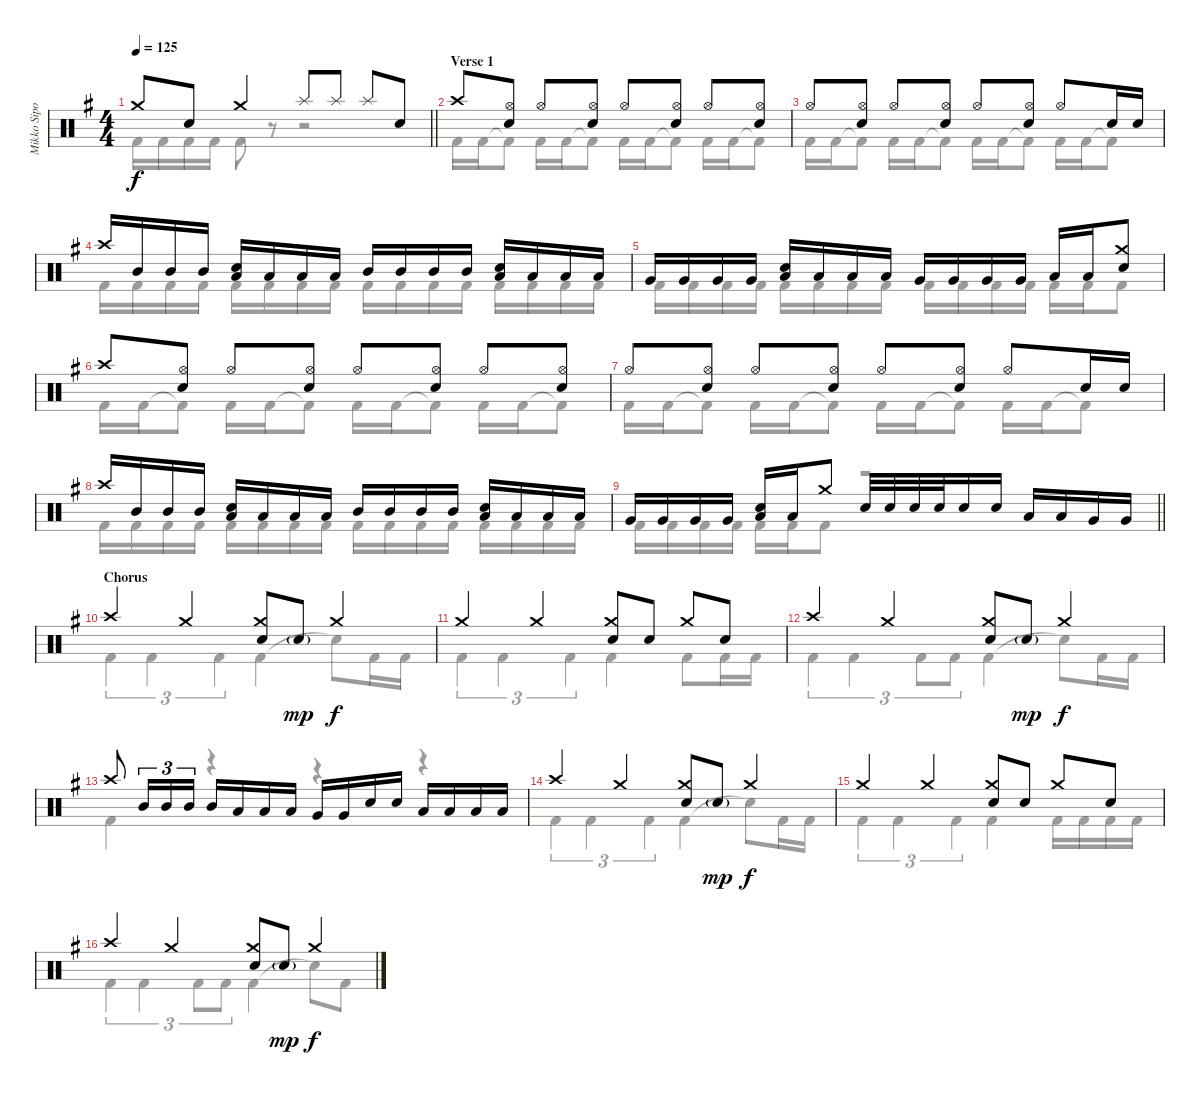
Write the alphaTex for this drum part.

\track ("Mikko Sipola (drums)" "Mikko Sipo") {instrument percussion}
\staff {score}
\articulation defaults
\voice
\ts (4 4)
\tempo 125
\clef neutral
\barLineRight lightlight
\ks g "Crash medium (hit)".8{dy f} "Electric Snare (hit)".8 "Crash medium (hit)".4 "Splash (hit)".8 "Splash (hit)".8 "Splash (hit)".8 "Electric Snare (hit)".8
|
\section ("" "Verse 1")
"Crash high (hit)".8 ("Hi-Hat (open)" "Electric Snare (hit)").8 "Hi-Hat (open)".8 ("Hi-Hat (open)" "Electric Snare (hit)").8 "Hi-Hat (open)".8 ("Hi-Hat (open)" "Electric Snare (hit)").8 "Hi-Hat (open)".8 ("Hi-Hat (open)" "Electric Snare (hit)").8 |
"Hi-Hat (open)".8 ("Hi-Hat (open)" "Electric Snare (hit)").8 "Hi-Hat (open)".8 ("Hi-Hat (open)" "Electric Snare (hit)").8 "Hi-Hat (open)".8 ("Hi-Hat (open)" "Electric Snare (hit)").8 "Hi-Hat (open)".8 "Electric Snare (hit)".16 "Electric Snare (hit)".16 |
"Crash high (hit)".16 "Mid Tom (hit)".16 "Mid Tom (hit)".16 "Mid Tom (hit)".16 ("Low Tom (hit)" "Electric Snare (hit)").16 "Low Tom (hit)".16 "Low Tom (hit)".16 "Low Tom (hit)".16 "Mid Tom (hit)".16 "Mid Tom (hit)".16 "Mid Tom (hit)".16 "Mid Tom (hit)".16 ("Low Tom (hit)" "Electric Snare (hit)").16 "Low Tom (hit)".16 "Low Tom (hit)".16 "Low Tom (hit)".16 |
"Very Low Tom (hit)".16 "Very Low Tom (hit)".16 "Very Low Tom (hit)".16 "Very Low Tom (hit)".16 ("Low Tom (hit)" "Electric Snare (hit)").16 "Low Tom (hit)".16 "Low Tom (hit)".16 "Low Tom (hit)".16 "Very Low Tom (hit)".16 "Very Low Tom (hit)".16 "Very Low Tom (hit)".16 "Very Low Tom (hit)".16 "Low Tom (hit)".16 "Low Tom (hit)".16 ("Crash medium (hit)" "Electric Snare (hit)").8 |
"Crash high (hit)".8 ("Hi-Hat (open)" "Electric Snare (hit)").8 "Hi-Hat (open)".8 ("Hi-Hat (open)" "Electric Snare (hit)").8 "Hi-Hat (open)".8 ("Hi-Hat (open)" "Electric Snare (hit)").8 "Hi-Hat (open)".8 ("Hi-Hat (open)" "Electric Snare (hit)").8 |
"Hi-Hat (open)".8 ("Hi-Hat (open)" "Electric Snare (hit)").8 "Hi-Hat (open)".8 ("Hi-Hat (open)" "Electric Snare (hit)").8 "Hi-Hat (open)".8 ("Hi-Hat (open)" "Electric Snare (hit)").8 "Hi-Hat (open)".8 "Electric Snare (hit)".16 "Electric Snare (hit)".16 |
"Crash high (hit)".16 "Mid Tom (hit)".16 "Mid Tom (hit)".16 "Mid Tom (hit)".16 ("Low Tom (hit)" "Electric Snare (hit)").16 "Low Tom (hit)".16 "Low Tom (hit)".16 "Low Tom (hit)".16 "Mid Tom (hit)".16 "Mid Tom (hit)".16 "Mid Tom (hit)".16 "Mid Tom (hit)".16 ("Low Tom (hit)" "Electric Snare (hit)").16 "Low Tom (hit)".16 "Low Tom (hit)".16 "Low Tom (hit)".16 |
\barLineRight lightlight "Very Low Tom (hit)".16 "Very Low Tom (hit)".16 "Very Low Tom (hit)".16 "Very Low Tom (hit)".16
("Low Tom (hit)" "Electric Snare (hit)").16 "Low Tom (hit)".16 "Crash medium (hit)".8 "Electric Snare (hit)".32 "Electric Snare (hit)".32 "Electric Snare (hit)".32 "Electric Snare (hit)".32 "Electric Snare (hit)".16 "Electric Snare (hit)".16 "Low Tom (hit)".16 "Low Tom (hit)".16 "Very Low Tom (hit)".16 "Very Low Tom (hit)".16 |
\section ("" "Chorus")
\ks eminor "Crash high (hit)".4 "Crash medium (hit)".4
("Crash medium (hit)" "Electric Snare (hit)").8 "Electric Snare (hit)"{g}.8{dy mp} "Crash medium (hit)".4{dy f} |
"Crash medium (hit)".4 "Crash medium (hit)".4 ("Crash medium (hit)" "Electric Snare (hit)").8 "Electric Snare (hit)".8 "Crash medium (hit)".8 "Electric Snare (hit)".8 |
"Crash high (hit)".4 "Crash medium (hit)".4 ("Crash medium (hit)" "Electric Snare (hit)").8 "Electric Snare (hit)"{g}.8{dy mp} "Crash medium (hit)".4{dy f} |
"Crash high (hit)".8 "Mid Tom (hit)".16{tu (3 2)} "Mid Tom (hit)".16{tu (3 2)} "Mid Tom (hit)".16{tu (3 2)} "Mid Tom (hit)".16 "Low Tom (hit)".16 "Low Tom (hit)".16 "Low Tom (hit)".16 "Very Low Tom (hit)".16 "Very Low Tom (hit)".16 "Electric Snare (hit)".16 "Electric Snare (hit)".16 "Low Tom (hit)".16 "Low Tom (hit)".16 "Low Tom (hit)".16 "Low Tom (hit)".16 |
"Crash high (hit)".4 "Crash medium (hit)".4 ("Crash medium (hit)" "Electric Snare (hit)").8 "Electric Snare (hit)"{g}.8{dy mp} "Crash medium (hit)".4{dy f} |
"Crash medium (hit)".4 "Crash medium (hit)".4 ("Crash medium (hit)" "Electric Snare (hit)").8 "Electric Snare (hit)".8 "Crash medium (hit)".8 "Electric Snare (hit)".8 |
"Crash high (hit)".4 "Crash medium (hit)".4 ("Crash medium (hit)" "Electric Snare (hit)").8 "Electric Snare (hit)"{g}.8{dy mp} "Crash medium (hit)".4{dy f}
\voice
\clef neutral
\ottava regular
\simile none
\barLineRight lightlight
\ks g "Kick (hit) 2".16{dy f} "Kick (hit) 2".16 "Kick (hit) 2".16 "Kick (hit) 2".16 "Kick (hit) 2".8
r.8 r.2 |
"Kick (hit) 2".16 "Kick (hit) 2".16 "Kick (hit) 2"{t}.8 "Kick (hit) 2".16 "Kick (hit) 2".16 "Kick (hit) 2"{t}.8 "Kick (hit) 2".16 "Kick (hit) 2".16 "Kick (hit) 2"{t}.8 "Kick (hit) 2".16 "Kick (hit) 2".16 "Kick (hit) 2"{t}.8 |
"Kick (hit) 2".16 "Kick (hit) 2".16 "Kick (hit) 2"{t}.8 "Kick (hit) 2".16 "Kick (hit) 2".16 "Kick (hit) 2"{t}.8 "Kick (hit) 2".16 "Kick (hit) 2".16 "Kick (hit) 2"{t}.8 "Kick (hit) 2".16 "Kick (hit) 2".16 "Kick (hit) 2"{t}.8 |
"Kick (hit) 2".16 "Kick (hit) 2".16 "Kick (hit) 2".16 "Kick (hit) 2".16 "Kick (hit) 2".16 "Kick (hit) 2".16 "Kick (hit) 2".16 "Kick (hit) 2".16 "Kick (hit) 2".16 "Kick (hit) 2".16 "Kick (hit) 2".16 "Kick (hit) 2".16 "Kick (hit) 2".16 "Kick (hit) 2".16 "Kick (hit) 2".16 "Kick (hit) 2".16 |
"Kick (hit) 2".16 "Kick (hit) 2".16 "Kick (hit) 2".16 "Kick (hit) 2".16 "Kick (hit) 2".16 "Kick (hit) 2".16 "Kick (hit) 2".16 "Kick (hit) 2".16 "Kick (hit) 2".16 "Kick (hit) 2".16 "Kick (hit) 2".16 "Kick (hit) 2".16 "Kick (hit) 2".16 "Kick (hit) 2".16 "Kick (hit) 2".8 |
"Kick (hit) 2".16 "Kick (hit) 2".16 "Kick (hit) 2"{t}.8 "Kick (hit) 2".16 "Kick (hit) 2".16 "Kick (hit) 2"{t}.8 "Kick (hit) 2".16 "Kick (hit) 2".16 "Kick (hit) 2"{t}.8 "Kick (hit) 2".16 "Kick (hit) 2".16 "Kick (hit) 2"{t}.8 |
"Kick (hit) 2".16 "Kick (hit) 2".16 "Kick (hit) 2"{t}.8 "Kick (hit) 2".16 "Kick (hit) 2".16 "Kick (hit) 2"{t}.8 "Kick (hit) 2".16 "Kick (hit) 2".16 "Kick (hit) 2"{t}.8 "Kick (hit) 2".16 "Kick (hit) 2".16 "Kick (hit) 2"{t}.8 |
"Kick (hit) 2".16 "Kick (hit) 2".16 "Kick (hit) 2".16 "Kick (hit) 2".16 "Kick (hit) 2".16 "Kick (hit) 2".16 "Kick (hit) 2".16 "Kick (hit) 2".16 "Kick (hit) 2".16 "Kick (hit) 2".16 "Kick (hit) 2".16 "Kick (hit) 2".16 "Kick (hit) 2".16 "Kick (hit) 2".16 "Kick (hit) 2".16 "Kick (hit) 2".16 |
\barLineRight lightlight "Kick (hit) 2".16 "Kick (hit) 2".16 "Kick (hit) 2".16 "Kick (hit) 2".16 "Kick (hit) 2".16 "Kick (hit) 2".16 "Kick (hit) 2".8
r.2 |
\ks eminor "Kick (hit) 2".4{tu (3 2)} "Kick (hit) 2".4{tu (3 2)} "Kick (hit) 2".4{tu (3 2)} "Kick (hit) 2".4 "Snare (hit)"{t}.8 "Kick (hit) 2".16 "Kick (hit) 2".16
|
"Kick (hit) 2".4{tu (3 2)} "Kick (hit) 2".4{tu (3 2)} "Kick (hit) 2".4{tu (3 2)} "Kick (hit) 2".4 "Kick (hit) 2".8 "Kick (hit) 2".16 "Kick (hit) 2".16 |
"Kick (hit) 2".4{tu (3 2)} "Kick (hit) 2".4{tu (3 2)} "Kick (hit) 2".8{tu (3 2)} "Kick (hit) 2".8{tu (3 2)} "Kick (hit) 2".4 "Snare (hit)"{t}.8 "Kick (hit) 2".16 "Kick (hit) 2".16 |
"Kick (hit) 2".4 r.4 r.4 r.4 |
"Kick (hit) 2".4{tu (3 2)} "Kick (hit) 2".4{tu (3 2)} "Kick (hit) 2".4{tu (3 2)} "Kick (hit) 2".4 "Snare (hit)"{t}.8 "Kick (hit) 2".16 "Kick (hit) 2".16 |
"Kick (hit) 2".4{tu (3 2)} "Kick (hit) 2".4{tu (3 2)} "Kick (hit) 2".4{tu (3 2)} "Kick (hit) 2".4 "Kick (hit) 2".16 "Kick (hit) 2".16 "Kick (hit) 2".16 "Kick (hit) 2".16 |
"Kick (hit) 2".4{tu (3 2)} "Kick (hit) 2".4{tu (3 2)} "Kick (hit) 2".8{tu (3 2)} "Kick (hit) 2".8{tu (3 2)} "Kick (hit) 2".4 "Snare (hit)"{t}.8 "Kick (hit) 2".8
